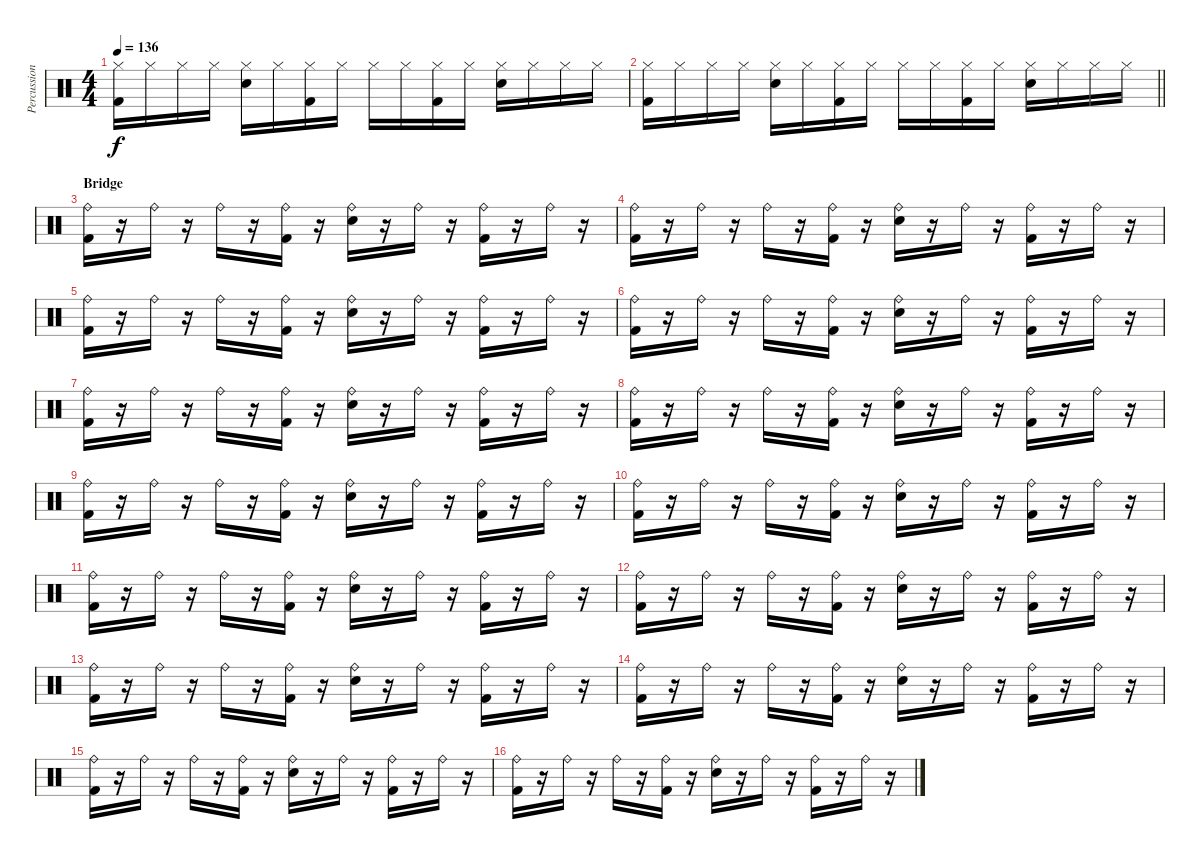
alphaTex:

\track ("Percussion" "Percussion") {instrument percussion}
\staff {score}
\articulation defaults
\ts (4 4)
\tempo 136
\clef neutral
\ks c
("Hi-Hat (closed)" "Kick (hit) 2").16{dy f} "Hi-Hat (closed)".16 "Hi-Hat (closed)".16 "Hi-Hat (closed)".16 ("Hi-Hat (closed)" "Electric Snare (hit)").16 "Hi-Hat (closed)".16 ("Hi-Hat (closed)" "Kick (hit) 2").16 "Hi-Hat (closed)".16 "Hi-Hat (closed)".16 "Hi-Hat (closed)".16 ("Hi-Hat (closed)" "Kick (hit) 2").16 "Hi-Hat (closed)".16 ("Hi-Hat (closed)" "Electric Snare (hit)").16 "Hi-Hat (closed)".16 "Hi-Hat (closed)".16 "Hi-Hat (closed)".16 |
\barLineRight lightlight
("Hi-Hat (closed)" "Kick (hit) 2").16 "Hi-Hat (closed)".16 "Hi-Hat (closed)".16 "Hi-Hat (closed)".16 ("Hi-Hat (closed)" "Electric Snare (hit)").16 "Hi-Hat (closed)".16 ("Hi-Hat (closed)" "Kick (hit) 2").16 "Hi-Hat (closed)".16 "Hi-Hat (closed)".16 "Hi-Hat (closed)".16 ("Hi-Hat (closed)" "Kick (hit) 2").16 "Hi-Hat (closed)".16 ("Hi-Hat (closed)" "Electric Snare (hit)").16 "Hi-Hat (closed)".16 "Hi-Hat (closed)".16 "Hi-Hat (closed)".16 |
\section ("" "Bridge")
("Ride (bell)" "Kick (hit) 2").16 r.16 "Ride (bell)".16 r.16 "Ride (bell)".16 r.16 ("Ride (bell)" "Kick (hit) 2").16 r.16 ("Ride (bell)" "Electric Snare (hit)").16 r.16 "Ride (bell)".16 r.16 ("Ride (bell)" "Kick (hit) 2").16 r.16 "Ride (bell)".16 r.16 |
("Ride (bell)" "Kick (hit) 2").16 r.16 "Ride (bell)".16 r.16 "Ride (bell)".16 r.16 ("Ride (bell)" "Kick (hit) 2").16 r.16 ("Ride (bell)" "Electric Snare (hit)").16 r.16 "Ride (bell)".16 r.16 ("Ride (bell)" "Kick (hit) 2").16 r.16 "Ride (bell)".16 r.16 |
("Ride (bell)" "Kick (hit) 2").16 r.16 "Ride (bell)".16 r.16 "Ride (bell)".16 r.16 ("Ride (bell)" "Kick (hit) 2").16 r.16 ("Ride (bell)" "Electric Snare (hit)").16 r.16 "Ride (bell)".16 r.16 ("Ride (bell)" "Kick (hit) 2").16 r.16 "Ride (bell)".16 r.16 |
("Ride (bell)" "Kick (hit) 2").16 r.16 "Ride (bell)".16 r.16 "Ride (bell)".16 r.16 ("Ride (bell)" "Kick (hit) 2").16 r.16 ("Ride (bell)" "Electric Snare (hit)").16 r.16 "Ride (bell)".16 r.16 ("Ride (bell)" "Kick (hit) 2").16 r.16 "Ride (bell)".16 r.16 |
("Ride (bell)" "Kick (hit) 2").16 r.16 "Ride (bell)".16 r.16 "Ride (bell)".16 r.16 ("Ride (bell)" "Kick (hit) 2").16 r.16 ("Ride (bell)" "Electric Snare (hit)").16 r.16 "Ride (bell)".16 r.16 ("Ride (bell)" "Kick (hit) 2").16 r.16 "Ride (bell)".16 r.16 |
("Ride (bell)" "Kick (hit) 2").16 r.16 "Ride (bell)".16 r.16 "Ride (bell)".16 r.16 ("Ride (bell)" "Kick (hit) 2").16 r.16 ("Ride (bell)" "Electric Snare (hit)").16 r.16 "Ride (bell)".16 r.16 ("Ride (bell)" "Kick (hit) 2").16 r.16 "Ride (bell)".16 r.16 |
("Ride (bell)" "Kick (hit) 2").16 r.16 "Ride (bell)".16 r.16 "Ride (bell)".16 r.16 ("Ride (bell)" "Kick (hit) 2").16 r.16 ("Ride (bell)" "Electric Snare (hit)").16 r.16 "Ride (bell)".16 r.16 ("Ride (bell)" "Kick (hit) 2").16 r.16 "Ride (bell)".16 r.16 |
("Ride (bell)" "Kick (hit) 2").16 r.16 "Ride (bell)".16 r.16 "Ride (bell)".16 r.16 ("Ride (bell)" "Kick (hit) 2").16 r.16 ("Ride (bell)" "Electric Snare (hit)").16 r.16 "Ride (bell)".16 r.16 ("Ride (bell)" "Kick (hit) 2").16 r.16 "Ride (bell)".16 r.16 |
("Ride (bell)" "Kick (hit) 2").16 r.16 "Ride (bell)".16 r.16 "Ride (bell)".16 r.16 ("Ride (bell)" "Kick (hit) 2").16 r.16 ("Ride (bell)" "Electric Snare (hit)").16 r.16 "Ride (bell)".16 r.16 ("Ride (bell)" "Kick (hit) 2").16 r.16 "Ride (bell)".16 r.16 |
("Ride (bell)" "Kick (hit) 2").16 r.16 "Ride (bell)".16 r.16 "Ride (bell)".16 r.16 ("Ride (bell)" "Kick (hit) 2").16 r.16 ("Ride (bell)" "Electric Snare (hit)").16 r.16 "Ride (bell)".16 r.16 ("Ride (bell)" "Kick (hit) 2").16 r.16 "Ride (bell)".16 r.16 |
("Ride (bell)" "Kick (hit) 2").16 r.16 "Ride (bell)".16 r.16 "Ride (bell)".16 r.16 ("Ride (bell)" "Kick (hit) 2").16 r.16 ("Ride (bell)" "Electric Snare (hit)").16 r.16 "Ride (bell)".16 r.16 ("Ride (bell)" "Kick (hit) 2").16 r.16 "Ride (bell)".16 r.16 |
("Ride (bell)" "Kick (hit) 2").16 r.16 "Ride (bell)".16 r.16 "Ride (bell)".16 r.16 ("Ride (bell)" "Kick (hit) 2").16 r.16 ("Ride (bell)" "Electric Snare (hit)").16 r.16 "Ride (bell)".16 r.16 ("Ride (bell)" "Kick (hit) 2").16 r.16 "Ride (bell)".16 r.16 |
("Ride (bell)" "Kick (hit) 2").16 r.16 "Ride (bell)".16 r.16 "Ride (bell)".16 r.16 ("Ride (bell)" "Kick (hit) 2").16 r.16 ("Ride (bell)" "Electric Snare (hit)").16 r.16 "Ride (bell)".16 r.16 ("Ride (bell)" "Kick (hit) 2").16 r.16 "Ride (bell)".16 r.16 |
("Ride (bell)" "Kick (hit) 2").16 r.16 "Ride (bell)".16 r.16 "Ride (bell)".16 r.16 ("Ride (bell)" "Kick (hit) 2").16 r.16 ("Ride (bell)" "Electric Snare (hit)").16 r.16 "Ride (bell)".16 r.16 ("Ride (bell)" "Kick (hit) 2").16 r.16 "Ride (bell)".16 r.16
